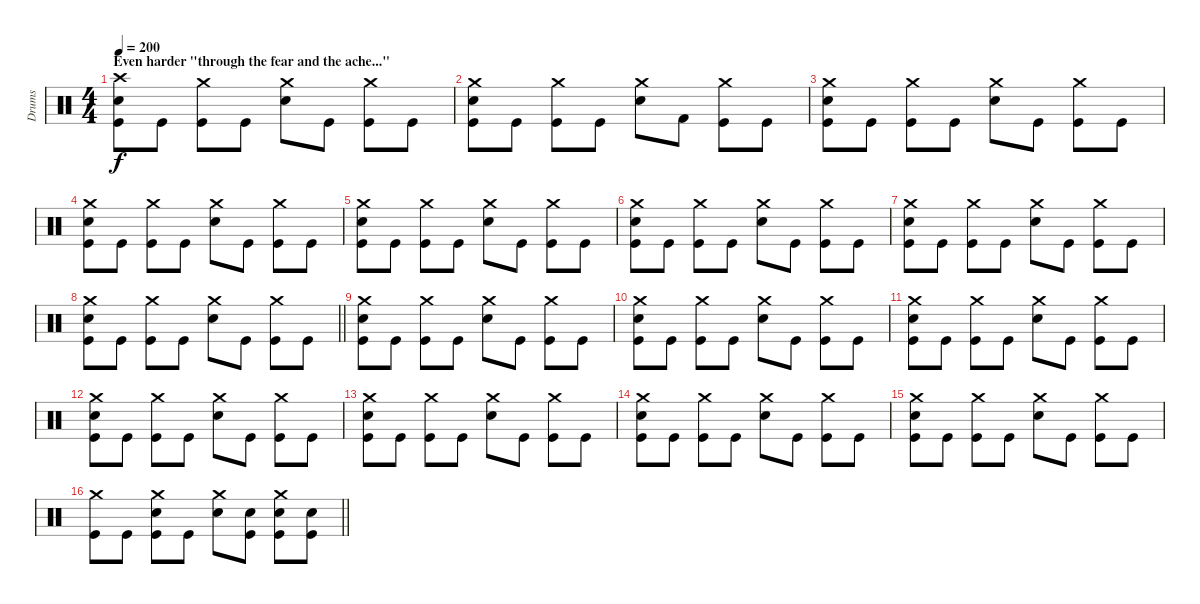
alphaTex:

\track ("Drums" "Drums") {instrument percussion}
\staff {score}
\articulation defaults
\ts (4 4)
\section ("" "Even harder \"through the fear and the ache...\"")
\tempo 200
\clef neutral
\ks c
("Crash high (hit)" "Snare (hit) 2" "Kick (hit)").8{dy f} "Kick (hit)".8 ("Crash medium (hit)" "Kick (hit)").8 "Kick (hit)".8 ("Crash medium (hit)" "Snare (hit) 2").8 "Kick (hit)".8 ("Crash medium (hit)" "Kick (hit)").8 "Kick (hit)".8 |
("Crash medium (hit)" "Snare (hit) 2" "Kick (hit)").8 "Kick (hit)".8 ("Crash medium (hit)" "Kick (hit)").8 "Kick (hit)".8 ("Crash medium (hit)" "Snare (hit) 2").8 "Kick (hit) 2".8 ("Crash medium (hit)" "Kick (hit)").8 "Kick (hit)".8 |
("Crash medium (hit)" "Snare (hit) 2" "Kick (hit)").8 "Kick (hit)".8 ("Crash medium (hit)" "Kick (hit)").8 "Kick (hit)".8 ("Crash medium (hit)" "Snare (hit) 2").8 "Kick (hit)".8 ("Crash medium (hit)" "Kick (hit)").8 "Kick (hit)".8 |
("Crash medium (hit)" "Snare (hit) 2" "Kick (hit)").8 "Kick (hit)".8 ("Crash medium (hit)" "Kick (hit)").8 "Kick (hit)".8 ("Crash medium (hit)" "Snare (hit) 2").8 "Kick (hit)".8 ("Crash medium (hit)" "Kick (hit)").8 "Kick (hit)".8 |
("Crash medium (hit)" "Snare (hit) 2" "Kick (hit)").8 "Kick (hit)".8 ("Crash medium (hit)" "Kick (hit)").8 "Kick (hit)".8 ("Crash medium (hit)" "Snare (hit) 2").8 "Kick (hit)".8 ("Crash medium (hit)" "Kick (hit)").8 "Kick (hit)".8 |
("Crash medium (hit)" "Snare (hit) 2" "Kick (hit)").8 "Kick (hit)".8 ("Crash medium (hit)" "Kick (hit)").8 "Kick (hit)".8 ("Crash medium (hit)" "Snare (hit) 2").8 "Kick (hit)".8 ("Crash medium (hit)" "Kick (hit)").8 "Kick (hit)".8 |
("Crash medium (hit)" "Snare (hit) 2" "Kick (hit)").8 "Kick (hit)".8 ("Crash medium (hit)" "Kick (hit)").8 "Kick (hit)".8 ("Crash medium (hit)" "Snare (hit) 2").8 "Kick (hit)".8 ("Crash medium (hit)" "Kick (hit)").8 "Kick (hit)".8 |
\barLineRight lightlight
("Crash medium (hit)" "Snare (hit) 2" "Kick (hit)").8 "Kick (hit)".8 ("Crash medium (hit)" "Kick (hit)").8 "Kick (hit)".8 ("Crash medium (hit)" "Snare (hit) 2").8 "Kick (hit)".8 ("Crash medium (hit)" "Kick (hit)").8 "Kick (hit)".8 |
("Crash medium (hit)" "Snare (hit) 2" "Kick (hit)").8 "Kick (hit)".8 ("Crash medium (hit)" "Kick (hit)").8 "Kick (hit)".8 ("Crash medium (hit)" "Snare (hit) 2").8 "Kick (hit)".8 ("Crash medium (hit)" "Kick (hit)").8 "Kick (hit)".8 |
("Crash medium (hit)" "Snare (hit) 2" "Kick (hit)").8 "Kick (hit)".8 ("Crash medium (hit)" "Kick (hit)").8 "Kick (hit)".8 ("Crash medium (hit)" "Snare (hit) 2").8 "Kick (hit)".8 ("Crash medium (hit)" "Kick (hit)").8 "Kick (hit)".8 |
("Crash medium (hit)" "Snare (hit) 2" "Kick (hit)").8 "Kick (hit)".8 ("Crash medium (hit)" "Kick (hit)").8 "Kick (hit)".8 ("Crash medium (hit)" "Snare (hit) 2").8 "Kick (hit)".8 ("Crash medium (hit)" "Kick (hit)").8 "Kick (hit)".8 |
("Crash medium (hit)" "Snare (hit) 2" "Kick (hit)").8 "Kick (hit)".8 ("Crash medium (hit)" "Kick (hit)").8 "Kick (hit)".8 ("Crash medium (hit)" "Snare (hit) 2").8 "Kick (hit)".8 ("Crash medium (hit)" "Kick (hit)").8 "Kick (hit)".8 |
("Crash medium (hit)" "Snare (hit) 2" "Kick (hit)").8 "Kick (hit)".8 ("Crash medium (hit)" "Kick (hit)").8 "Kick (hit)".8 ("Crash medium (hit)" "Snare (hit) 2").8 "Kick (hit)".8 ("Crash medium (hit)" "Kick (hit)").8 "Kick (hit)".8 |
("Crash medium (hit)" "Snare (hit) 2" "Kick (hit)").8 "Kick (hit)".8 ("Crash medium (hit)" "Kick (hit)").8 "Kick (hit)".8 ("Crash medium (hit)" "Snare (hit) 2").8 "Kick (hit)".8 ("Crash medium (hit)" "Kick (hit)").8 "Kick (hit)".8 |
("Crash medium (hit)" "Snare (hit) 2" "Kick (hit)").8 "Kick (hit)".8 ("Crash medium (hit)" "Kick (hit)").8 "Kick (hit)".8 ("Crash medium (hit)" "Snare (hit) 2").8 "Kick (hit)".8 ("Crash medium (hit)" "Kick (hit)").8 "Kick (hit)".8 |
\barLineRight lightlight
("Crash medium (hit)" "Kick (hit)").8 "Kick (hit)".8 ("Crash medium (hit)" "Snare (hit) 2" "Kick (hit)").8 "Kick (hit)".8 ("Crash medium (hit)" "Snare (hit) 2").8 ("Snare (hit) 2" "Kick (hit)").8 ("Crash medium (hit)" "Snare (hit) 2" "Kick (hit)").8 ("Snare (hit) 2" "Kick (hit)").8
